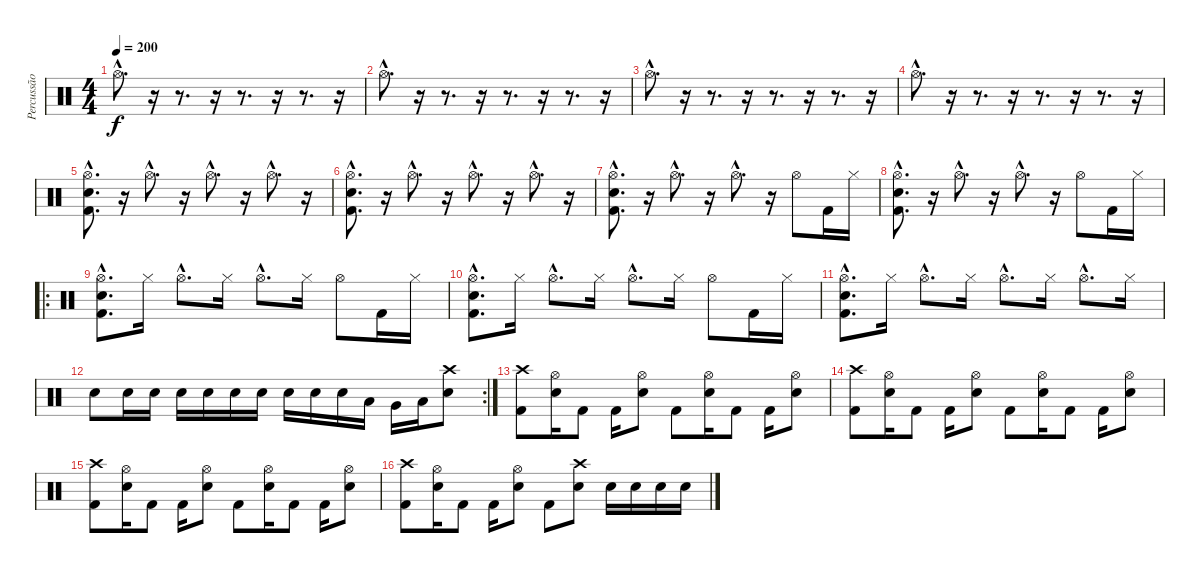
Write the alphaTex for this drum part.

\track ("Percussão" "Percussão") {instrument percussion}
\staff {score}
\articulation defaults
\ts (4 4)
\tempo 200
\clef neutral
\ks c "Hi-Hat (open)"{hac}.8{d dy f}
r.16 r.8{d} r.16 r.8{d} r.16 r.8{d} r.16 |
"Hi-Hat (open)"{hac}.8{d} r.16 r.8{d} r.16 r.8{d} r.16 r.8{d} r.16 |
"Hi-Hat (open)"{hac}.8{d} r.16 r.8{d} r.16 r.8{d} r.16 r.8{d} r.16 |
"Hi-Hat (open)"{hac}.8{d} r.16 r.8{d} r.16 r.8{d} r.16 r.8{d} r.16 |
("Hi-Hat (open)"{hac} "Snare (hit) 2"{hac} "Kick (hit) 2"{hac}).8{d} r.16 "Hi-Hat (open)"{hac}.8{d} r.16 "Hi-Hat (open)"{hac}.8{d} r.16 "Hi-Hat (open)"{hac}.8{d} r.16 |
("Hi-Hat (open)"{hac} "Snare (hit) 2"{hac} "Kick (hit) 2"{hac}).8{d} r.16 "Hi-Hat (open)"{hac}.8{d} r.16 "Hi-Hat (open)"{hac}.8{d} r.16 "Hi-Hat (open)"{hac}.8{d} r.16 |
("Hi-Hat (open)"{hac} "Snare (hit) 2"{hac} "Kick (hit) 2"{hac}).8{d} r.16 "Hi-Hat (open)"{hac}.8{d} r.16 "Hi-Hat (open)"{hac}.8{d} r.16 "Hi-Hat (open)".8 "Kick (hit) 2".16 "Hi-Hat (closed)".16 |
("Hi-Hat (open)"{hac} "Snare (hit) 2"{hac} "Kick (hit) 2"{hac}).8{d} r.16 "Hi-Hat (open)"{hac}.8{d} r.16 "Hi-Hat (open)"{hac}.8{d} r.16 "Hi-Hat (open)".8 "Kick (hit) 2".16 "Hi-Hat (closed)".16 |
\ro
("Hi-Hat (open)"{hac} "Snare (hit) 2"{hac} "Kick (hit) 2"{hac}).8{d} "Hi-Hat (closed)".16 "Hi-Hat (open)"{hac}.8{d} "Hi-Hat (closed)".16 "Hi-Hat (open)"{hac}.8{d} "Hi-Hat (closed)".16 "Hi-Hat (open)".8 "Kick (hit) 2".16 "Hi-Hat (closed)".16 |
("Hi-Hat (open)"{hac} "Snare (hit) 2"{hac} "Kick (hit) 2"{hac}).8{d} "Hi-Hat (closed)".16 "Hi-Hat (open)"{hac}.8{d} "Hi-Hat (closed)".16 "Hi-Hat (open)"{hac}.8{d} "Hi-Hat (closed)".16 "Hi-Hat (open)".8 "Kick (hit) 2".16 "Hi-Hat (closed)".16 |
("Hi-Hat (open)"{hac} "Snare (hit) 2"{hac} "Kick (hit) 2"{hac}).8{d} "Hi-Hat (closed)".16 "Hi-Hat (open)"{hac}.8{d} "Hi-Hat (closed)".16 "Hi-Hat (open)"{hac}.8{d} "Hi-Hat (closed)".16 "Hi-Hat (open)"{hac}.8{d} "Hi-Hat (closed)".16 |
\rc 2 "Snare (hit) 2".8 "Snare (hit) 2".16 "Snare (hit) 2".16 "Snare (hit) 2".16 "Snare (hit) 2".16 "Snare (hit) 2".16 "Snare (hit) 2".16 "Snare (hit) 2".16 "Snare (hit) 2".16 "Snare (hit) 2".16 "Low Tom (hit)".16 "Very Low Tom (hit)".16 "Low Floor Tom (hit)".16
("Crash high (hit)" "Snare (hit) 2").8 |
("Crash high (hit)" "Kick (hit) 2").8 ("Hi-Hat (open)" "Snare (hit) 2").16 "Kick (hit) 2".8 "Kick (hit) 2".16 ("Hi-Hat (open)" "Snare (hit) 2").8 "Kick (hit) 2".8 ("Hi-Hat (open)" "Snare (hit) 2").16 "Kick (hit) 2".8 "Kick (hit) 2".16 ("Hi-Hat (open)" "Snare (hit) 2").8 |
("Crash high (hit)" "Kick (hit) 2").8 ("Hi-Hat (open)" "Snare (hit) 2").16 "Kick (hit) 2".8 "Kick (hit) 2".16 ("Hi-Hat (open)" "Snare (hit) 2").8 "Kick (hit) 2".8 ("Hi-Hat (open)" "Snare (hit) 2").16 "Kick (hit) 2".8 "Kick (hit) 2".16 ("Hi-Hat (open)" "Snare (hit) 2").8 |
("Crash high (hit)" "Kick (hit) 2").8 ("Hi-Hat (open)" "Snare (hit) 2").16 "Kick (hit) 2".8 "Kick (hit) 2".16 ("Hi-Hat (open)" "Snare (hit) 2").8 "Kick (hit) 2".8 ("Hi-Hat (open)" "Snare (hit) 2").16 "Kick (hit) 2".8 "Kick (hit) 2".16 ("Hi-Hat (open)" "Snare (hit) 2").8 |
("Crash high (hit)" "Kick (hit) 2").8 ("Hi-Hat (open)" "Snare (hit) 2").16 "Kick (hit) 2".8 "Kick (hit) 2".16 ("Hi-Hat (open)" "Snare (hit) 2").8 "Kick (hit) 2".8 ("Crash high (hit)" "Snare (hit) 2").8 "Snare (hit) 2".16 "Snare (hit) 2".16 "Snare (hit) 2".16 "Snare (hit) 2".16
